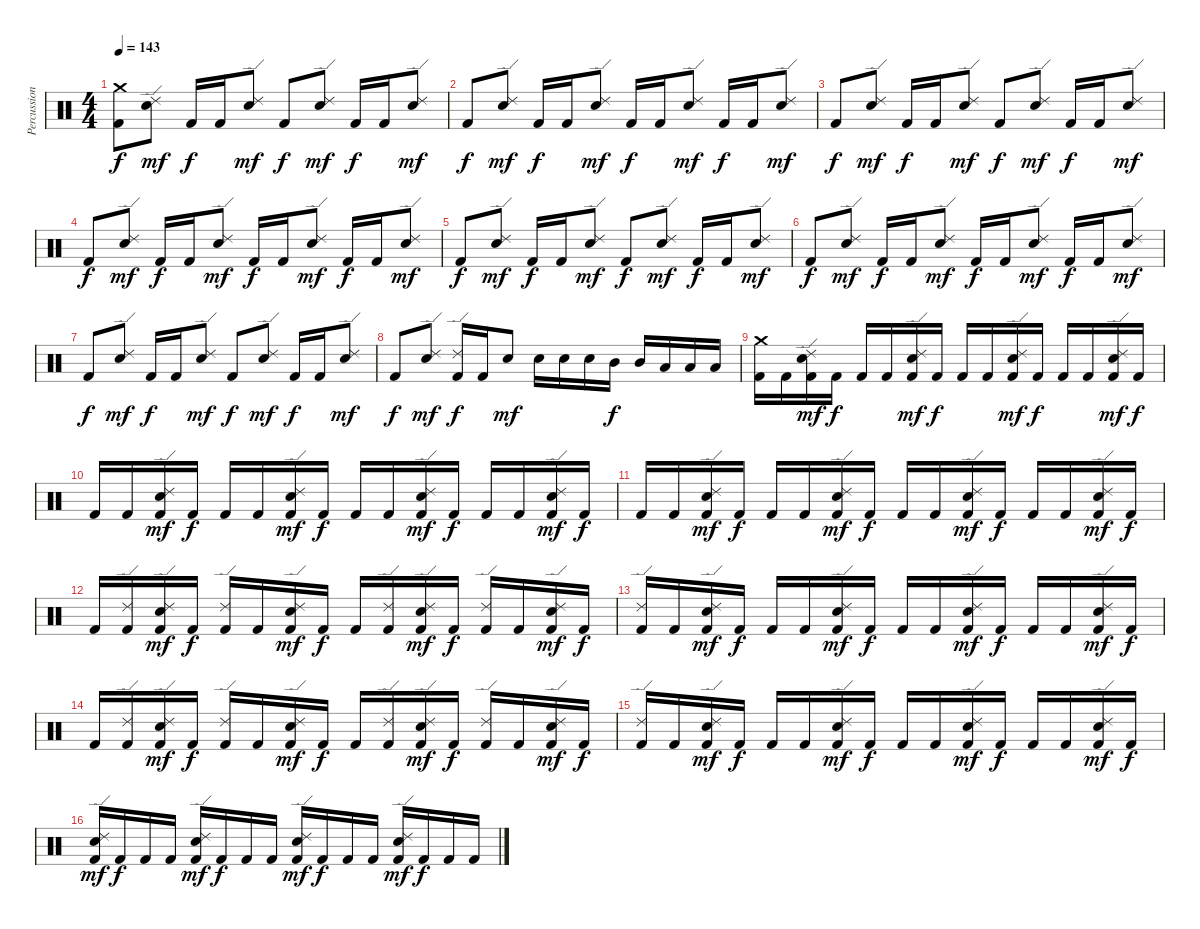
\track ("Percussion" "Percussion") {instrument percussion}
\staff {score}
\articulation defaults
\ts (4 4)
\tempo 143
\clef neutral
\ks c
("Crash medium (hit)" "Kick (hit) 2").8{dy f} ("Ride (edge) 2" "Electric Snare (hit)").8{dy mf} "Kick (hit) 2".16{dy f} "Kick (hit) 2".16 ("Ride (edge) 2" "Electric Snare (hit)").8{dy mf} "Kick (hit) 2".8{dy f} ("Ride (edge) 2" "Electric Snare (hit)").8{dy mf} "Kick (hit) 2".16{dy f} "Kick (hit) 2".16 ("Ride (edge) 2" "Electric Snare (hit)").8{dy mf} |
"Kick (hit) 2".8{dy f} ("Ride (edge) 2" "Electric Snare (hit)").8{dy mf} "Kick (hit) 2".16{dy f} "Kick (hit) 2".16 ("Ride (edge) 2" "Electric Snare (hit)").8{dy mf} "Kick (hit) 2".16{dy f} "Kick (hit) 2".16 ("Ride (edge) 2" "Electric Snare (hit)").8{dy mf} "Kick (hit) 2".16{dy f} "Kick (hit) 2".16 ("Ride (edge) 2" "Electric Snare (hit)").8{dy mf} |
"Kick (hit) 2".8{dy f} ("Ride (edge) 2" "Electric Snare (hit)").8{dy mf} "Kick (hit) 2".16{dy f} "Kick (hit) 2".16 ("Ride (edge) 2" "Electric Snare (hit)").8{dy mf} "Kick (hit) 2".8{dy f} ("Ride (edge) 2" "Electric Snare (hit)").8{dy mf} "Kick (hit) 2".16{dy f} "Kick (hit) 2".16 ("Ride (edge) 2" "Electric Snare (hit)").8{dy mf} |
"Kick (hit) 2".8{dy f} ("Ride (edge) 2" "Electric Snare (hit)").8{dy mf} "Kick (hit) 2".16{dy f} "Kick (hit) 2".16 ("Ride (edge) 2" "Electric Snare (hit)").8{dy mf} "Kick (hit) 2".16{dy f} "Kick (hit) 2".16 ("Ride (edge) 2" "Electric Snare (hit)").8{dy mf} "Kick (hit) 2".16{dy f} "Kick (hit) 2".16 ("Ride (edge) 2" "Electric Snare (hit)").8{dy mf} |
"Kick (hit) 2".8{dy f} ("Ride (edge) 2" "Electric Snare (hit)").8{dy mf} "Kick (hit) 2".16{dy f} "Kick (hit) 2".16 ("Ride (edge) 2" "Electric Snare (hit)").8{dy mf} "Kick (hit) 2".8{dy f} ("Ride (edge) 2" "Electric Snare (hit)").8{dy mf} "Kick (hit) 2".16{dy f} "Kick (hit) 2".16 ("Ride (edge) 2" "Electric Snare (hit)").8{dy mf} |
"Kick (hit) 2".8{dy f} ("Ride (edge) 2" "Electric Snare (hit)").8{dy mf} "Kick (hit) 2".16{dy f} "Kick (hit) 2".16 ("Ride (edge) 2" "Electric Snare (hit)").8{dy mf} "Kick (hit) 2".16{dy f} "Kick (hit) 2".16 ("Ride (edge) 2" "Electric Snare (hit)").8{dy mf} "Kick (hit) 2".16{dy f} "Kick (hit) 2".16 ("Ride (edge) 2" "Electric Snare (hit)").8{dy mf} |
"Kick (hit) 2".8{dy f} ("Ride (edge) 2" "Electric Snare (hit)").8{dy mf} "Kick (hit) 2".16{dy f} "Kick (hit) 2".16 ("Ride (edge) 2" "Electric Snare (hit)").8{dy mf} "Kick (hit) 2".8{dy f} ("Ride (edge) 2" "Electric Snare (hit)").8{dy mf} "Kick (hit) 2".16{dy f} "Kick (hit) 2".16 ("Ride (edge) 2" "Electric Snare (hit)").8{dy mf} |
"Kick (hit) 2".8{dy f} ("Ride (edge) 2" "Electric Snare (hit)").8{dy mf} ("Ride (edge) 2" "Kick (hit) 2").16{dy f} "Kick (hit) 2".16 "Electric Snare (hit)".8{dy mf} "Electric Snare (hit)".16 "Electric Snare (hit)".16 "Electric Snare (hit)".16 "Mid Tom (hit)".16{dy f} "Mid Tom (hit)".16 "Low Tom (hit)".16 "Low Tom (hit)".16 "Low Tom (hit)".16 |
("Crash medium (hit)" "Kick (hit) 2").16 "Kick (hit) 2".16 ("Ride (edge) 2" "Electric Snare (hit)" "Kick (hit) 2").16{dy mf} "Kick (hit) 2".16{dy f} "Kick (hit) 2".16 "Kick (hit) 2".16 ("Ride (edge) 2" "Electric Snare (hit)" "Kick (hit) 2").16{dy mf} "Kick (hit) 2".16{dy f} "Kick (hit) 2".16 "Kick (hit) 2".16 ("Ride (edge) 2" "Electric Snare (hit)" "Kick (hit) 2").16{dy mf} "Kick (hit) 2".16{dy f} "Kick (hit) 2".16 "Kick (hit) 2".16 ("Ride (edge) 2" "Electric Snare (hit)" "Kick (hit) 2").16{dy mf} "Kick (hit) 2".16{dy f} |
"Kick (hit) 2".16 "Kick (hit) 2".16 ("Ride (edge) 2" "Electric Snare (hit)" "Kick (hit) 2").16{dy mf} "Kick (hit) 2".16{dy f} "Kick (hit) 2".16 "Kick (hit) 2".16 ("Ride (edge) 2" "Electric Snare (hit)" "Kick (hit) 2").16{dy mf} "Kick (hit) 2".16{dy f} "Kick (hit) 2".16 "Kick (hit) 2".16 ("Ride (edge) 2" "Electric Snare (hit)" "Kick (hit) 2").16{dy mf} "Kick (hit) 2".16{dy f} "Kick (hit) 2".16 "Kick (hit) 2".16 ("Ride (edge) 2" "Electric Snare (hit)" "Kick (hit) 2").16{dy mf} "Kick (hit) 2".16{dy f} |
"Kick (hit) 2".16 "Kick (hit) 2".16 ("Ride (edge) 2" "Electric Snare (hit)" "Kick (hit) 2").16{dy mf} "Kick (hit) 2".16{dy f} "Kick (hit) 2".16 "Kick (hit) 2".16 ("Ride (edge) 2" "Electric Snare (hit)" "Kick (hit) 2").16{dy mf} "Kick (hit) 2".16{dy f} "Kick (hit) 2".16 "Kick (hit) 2".16 ("Ride (edge) 2" "Electric Snare (hit)" "Kick (hit) 2").16{dy mf} "Kick (hit) 2".16{dy f} "Kick (hit) 2".16 "Kick (hit) 2".16 ("Ride (edge) 2" "Electric Snare (hit)" "Kick (hit) 2").16{dy mf} "Kick (hit) 2".16{dy f} |
"Kick (hit) 2".16 ("Ride (edge) 2" "Kick (hit) 2").16 ("Ride (edge) 2" "Electric Snare (hit)" "Kick (hit) 2").16{dy mf} "Kick (hit) 2".16{dy f} ("Ride (edge) 2" "Kick (hit) 2").16 "Kick (hit) 2".16 ("Ride (edge) 2" "Electric Snare (hit)" "Kick (hit) 2").16{dy mf} "Kick (hit) 2".16{dy f} "Kick (hit) 2".16 ("Ride (edge) 2" "Kick (hit) 2").16 ("Ride (edge) 2" "Electric Snare (hit)" "Kick (hit) 2").16{dy mf} "Kick (hit) 2".16{dy f} ("Ride (edge) 2" "Kick (hit) 2").16 "Kick (hit) 2".16 ("Ride (edge) 2" "Electric Snare (hit)" "Kick (hit) 2").16{dy mf} "Kick (hit) 2".16{dy f} |
("Ride (edge) 2" "Kick (hit) 2").16 "Kick (hit) 2".16 ("Ride (edge) 2" "Electric Snare (hit)" "Kick (hit) 2").16{dy mf} "Kick (hit) 2".16{dy f} "Kick (hit) 2".16 "Kick (hit) 2".16 ("Ride (edge) 2" "Electric Snare (hit)" "Kick (hit) 2").16{dy mf} "Kick (hit) 2".16{dy f} "Kick (hit) 2".16 "Kick (hit) 2".16 ("Ride (edge) 2" "Electric Snare (hit)" "Kick (hit) 2").16{dy mf} "Kick (hit) 2".16{dy f} "Kick (hit) 2".16 "Kick (hit) 2".16 ("Ride (edge) 2" "Electric Snare (hit)" "Kick (hit) 2").16{dy mf} "Kick (hit) 2".16{dy f} |
"Kick (hit) 2".16 ("Ride (edge) 2" "Kick (hit) 2").16 ("Ride (edge) 2" "Electric Snare (hit)" "Kick (hit) 2").16{dy mf} "Kick (hit) 2".16{dy f} ("Ride (edge) 2" "Kick (hit) 2").16 "Kick (hit) 2".16 ("Ride (edge) 2" "Electric Snare (hit)" "Kick (hit) 2").16{dy mf} "Kick (hit) 2".16{dy f} "Kick (hit) 2".16 ("Ride (edge) 2" "Kick (hit) 2").16 ("Ride (edge) 2" "Electric Snare (hit)" "Kick (hit) 2").16{dy mf} "Kick (hit) 2".16{dy f} ("Ride (edge) 2" "Kick (hit) 2").16 "Kick (hit) 2".16 ("Ride (edge) 2" "Electric Snare (hit)" "Kick (hit) 2").16{dy mf} "Kick (hit) 2".16{dy f} |
("Ride (edge) 2" "Kick (hit) 2").16 "Kick (hit) 2".16 ("Ride (edge) 2" "Electric Snare (hit)" "Kick (hit) 2").16{dy mf} "Kick (hit) 2".16{dy f} "Kick (hit) 2".16 "Kick (hit) 2".16 ("Ride (edge) 2" "Electric Snare (hit)" "Kick (hit) 2").16{dy mf} "Kick (hit) 2".16{dy f} "Kick (hit) 2".16 "Kick (hit) 2".16 ("Ride (edge) 2" "Electric Snare (hit)" "Kick (hit) 2").16{dy mf} "Kick (hit) 2".16{dy f} "Kick (hit) 2".16 "Kick (hit) 2".16 ("Ride (edge) 2" "Electric Snare (hit)" "Kick (hit) 2").16{dy mf} "Kick (hit) 2".16{dy f} |
("Ride (edge) 2" "Electric Snare (hit)" "Kick (hit) 2").16{dy mf} "Kick (hit) 2".16{dy f} "Kick (hit) 2".16 "Kick (hit) 2".16 ("Ride (edge) 2" "Electric Snare (hit)" "Kick (hit) 2").16{dy mf} "Kick (hit) 2".16{dy f} "Kick (hit) 2".16 "Kick (hit) 2".16 ("Ride (edge) 2" "Electric Snare (hit)" "Kick (hit) 2").16{dy mf} "Kick (hit) 2".16{dy f} "Kick (hit) 2".16 "Kick (hit) 2".16 ("Ride (edge) 2" "Electric Snare (hit)" "Kick (hit) 2").16{dy mf} "Kick (hit) 2".16{dy f} "Kick (hit) 2".16 "Kick (hit) 2".16
